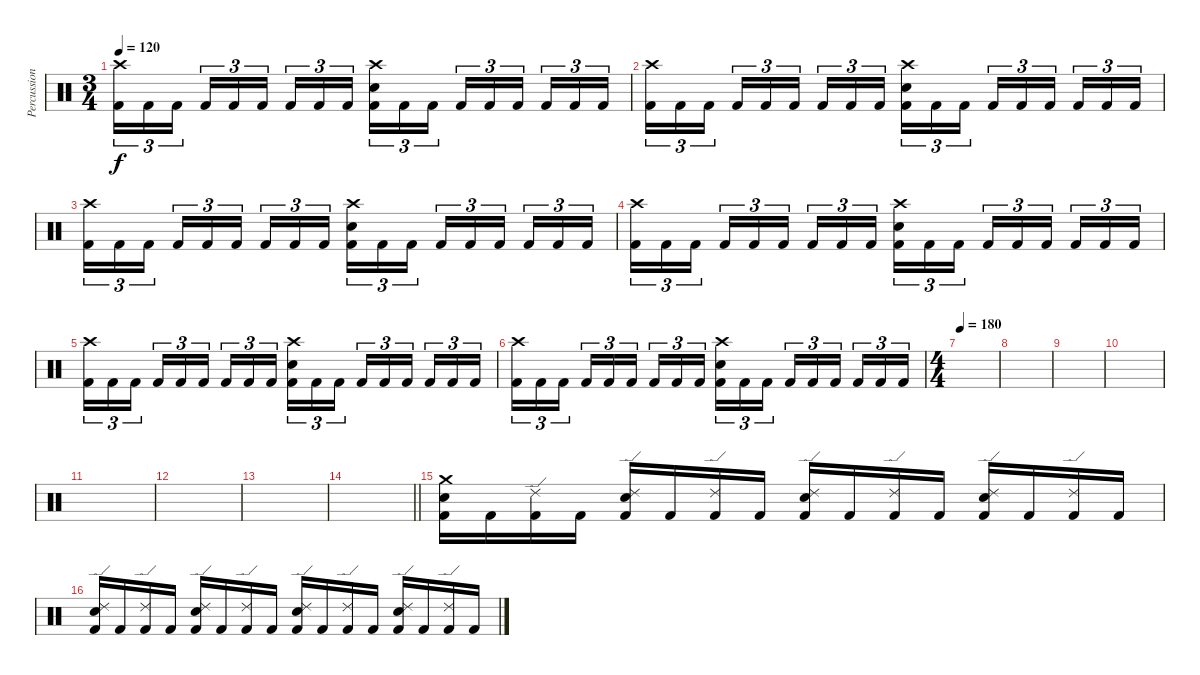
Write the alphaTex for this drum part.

\track ("Percussion" "Percussion") {instrument percussion}
\staff {score}
\articulation defaults
\ts (3 4)
\tempo 120
\clef neutral
\ks c
("Crash high (hit)" "Kick (hit) 2").16{tu (3 2) dy f} "Kick (hit) 2".16{tu (3 2)} "Kick (hit) 2".16{tu (3 2) beam splitsecondary} "Kick (hit) 2".16{tu (3 2)} "Kick (hit) 2".16{tu (3 2)} "Kick (hit) 2".16{tu (3 2)} "Kick (hit) 2".16{tu (3 2)} "Kick (hit) 2".16{tu (3 2)} "Kick (hit) 2".16{tu (3 2) beam splitsecondary} ("Electric Snare (hit)" "Crash high (hit)" "Kick (hit) 2").16{tu (3 2)} "Kick (hit) 2".16{tu (3 2)} "Kick (hit) 2".16{tu (3 2)} "Kick (hit) 2".16{tu (3 2)} "Kick (hit) 2".16{tu (3 2)} "Kick (hit) 2".16{tu (3 2) beam splitsecondary} "Kick (hit) 2".16{tu (3 2)} "Kick (hit) 2".16{tu (3 2)} "Kick (hit) 2".16{tu (3 2)} |
("Crash high (hit)" "Kick (hit) 2").16{tu (3 2)} "Kick (hit) 2".16{tu (3 2)} "Kick (hit) 2".16{tu (3 2) beam splitsecondary} "Kick (hit) 2".16{tu (3 2)} "Kick (hit) 2".16{tu (3 2)} "Kick (hit) 2".16{tu (3 2)} "Kick (hit) 2".16{tu (3 2)} "Kick (hit) 2".16{tu (3 2)} "Kick (hit) 2".16{tu (3 2) beam splitsecondary} ("Electric Snare (hit)" "Crash high (hit)" "Kick (hit) 2").16{tu (3 2)} "Kick (hit) 2".16{tu (3 2)} "Kick (hit) 2".16{tu (3 2)} "Kick (hit) 2".16{tu (3 2)} "Kick (hit) 2".16{tu (3 2)} "Kick (hit) 2".16{tu (3 2) beam splitsecondary} "Kick (hit) 2".16{tu (3 2)} "Kick (hit) 2".16{tu (3 2)} "Kick (hit) 2".16{tu (3 2)} |
("Crash high (hit)" "Kick (hit) 2").16{tu (3 2)} "Kick (hit) 2".16{tu (3 2)} "Kick (hit) 2".16{tu (3 2) beam splitsecondary} "Kick (hit) 2".16{tu (3 2)} "Kick (hit) 2".16{tu (3 2)} "Kick (hit) 2".16{tu (3 2)} "Kick (hit) 2".16{tu (3 2)} "Kick (hit) 2".16{tu (3 2)} "Kick (hit) 2".16{tu (3 2) beam splitsecondary} ("Electric Snare (hit)" "Crash high (hit)" "Kick (hit) 2").16{tu (3 2)} "Kick (hit) 2".16{tu (3 2)} "Kick (hit) 2".16{tu (3 2)} "Kick (hit) 2".16{tu (3 2)} "Kick (hit) 2".16{tu (3 2)} "Kick (hit) 2".16{tu (3 2) beam splitsecondary} "Kick (hit) 2".16{tu (3 2)} "Kick (hit) 2".16{tu (3 2)} "Kick (hit) 2".16{tu (3 2)} |
("Crash high (hit)" "Kick (hit) 2").16{tu (3 2)} "Kick (hit) 2".16{tu (3 2)} "Kick (hit) 2".16{tu (3 2) beam splitsecondary} "Kick (hit) 2".16{tu (3 2)} "Kick (hit) 2".16{tu (3 2)} "Kick (hit) 2".16{tu (3 2)} "Kick (hit) 2".16{tu (3 2)} "Kick (hit) 2".16{tu (3 2)} "Kick (hit) 2".16{tu (3 2) beam splitsecondary} ("Electric Snare (hit)" "Crash high (hit)" "Kick (hit) 2").16{tu (3 2)} "Kick (hit) 2".16{tu (3 2)} "Kick (hit) 2".16{tu (3 2)} "Kick (hit) 2".16{tu (3 2)} "Kick (hit) 2".16{tu (3 2)} "Kick (hit) 2".16{tu (3 2) beam splitsecondary} "Kick (hit) 2".16{tu (3 2)} "Kick (hit) 2".16{tu (3 2)} "Kick (hit) 2".16{tu (3 2)} |
("Crash high (hit)" "Kick (hit) 2").16{tu (3 2)} "Kick (hit) 2".16{tu (3 2)} "Kick (hit) 2".16{tu (3 2) beam splitsecondary} "Kick (hit) 2".16{tu (3 2)} "Kick (hit) 2".16{tu (3 2)} "Kick (hit) 2".16{tu (3 2)} "Kick (hit) 2".16{tu (3 2)} "Kick (hit) 2".16{tu (3 2)} "Kick (hit) 2".16{tu (3 2) beam splitsecondary} ("Electric Snare (hit)" "Crash high (hit)" "Kick (hit) 2").16{tu (3 2)} "Kick (hit) 2".16{tu (3 2)} "Kick (hit) 2".16{tu (3 2)} "Kick (hit) 2".16{tu (3 2)} "Kick (hit) 2".16{tu (3 2)} "Kick (hit) 2".16{tu (3 2) beam splitsecondary} "Kick (hit) 2".16{tu (3 2)} "Kick (hit) 2".16{tu (3 2)} "Kick (hit) 2".16{tu (3 2)} |
("Crash high (hit)" "Kick (hit) 2").16{tu (3 2)} "Kick (hit) 2".16{tu (3 2)} "Kick (hit) 2".16{tu (3 2) beam splitsecondary} "Kick (hit) 2".16{tu (3 2)} "Kick (hit) 2".16{tu (3 2)} "Kick (hit) 2".16{tu (3 2)} "Kick (hit) 2".16{tu (3 2)} "Kick (hit) 2".16{tu (3 2)} "Kick (hit) 2".16{tu (3 2) beam splitsecondary} ("Electric Snare (hit)" "Crash high (hit)" "Kick (hit) 2").16{tu (3 2)} "Kick (hit) 2".16{tu (3 2)} "Kick (hit) 2".16{tu (3 2)} "Kick (hit) 2".16{tu (3 2)} "Kick (hit) 2".16{tu (3 2)} "Kick (hit) 2".16{tu (3 2) beam splitsecondary} "Kick (hit) 2".16{tu (3 2)} "Kick (hit) 2".16{tu (3 2)} "Kick (hit) 2".16{tu (3 2)} |
\ts (4 4)
\tempo 180
|
|
|
|
|
|
|
\barLineRight lightlight
|
("Crash medium (hit)" "Electric Snare (hit)" "Kick (hit) 2").16 "Kick (hit) 2".16 ("Ride (edge) 2" "Kick (hit) 2").16 "Kick (hit) 2".16 ("Ride (edge) 2" "Electric Snare (hit)" "Kick (hit) 2").16 "Kick (hit) 2".16 ("Ride (edge) 2" "Kick (hit) 2").16 "Kick (hit) 2".16 ("Ride (edge) 2" "Electric Snare (hit)" "Kick (hit) 2").16 "Kick (hit) 2".16 ("Ride (edge) 2" "Kick (hit) 2").16 "Kick (hit) 2".16 ("Ride (edge) 2" "Electric Snare (hit)" "Kick (hit) 2").16 "Kick (hit) 2".16 ("Ride (edge) 2" "Kick (hit) 2").16 "Kick (hit) 2".16 |
("Ride (edge) 2" "Electric Snare (hit)" "Kick (hit) 2").16 "Kick (hit) 2".16 ("Ride (edge) 2" "Kick (hit) 2").16 "Kick (hit) 2".16 ("Ride (edge) 2" "Electric Snare (hit)" "Kick (hit) 2").16 "Kick (hit) 2".16 ("Ride (edge) 2" "Kick (hit) 2").16 "Kick (hit) 2".16 ("Ride (edge) 2" "Electric Snare (hit)" "Kick (hit) 2").16 "Kick (hit) 2".16 ("Ride (edge) 2" "Kick (hit) 2").16 "Kick (hit) 2".16 ("Ride (edge) 2" "Electric Snare (hit)" "Kick (hit) 2").16 "Kick (hit) 2".16 ("Ride (edge) 2" "Kick (hit) 2").16 "Kick (hit) 2".16
